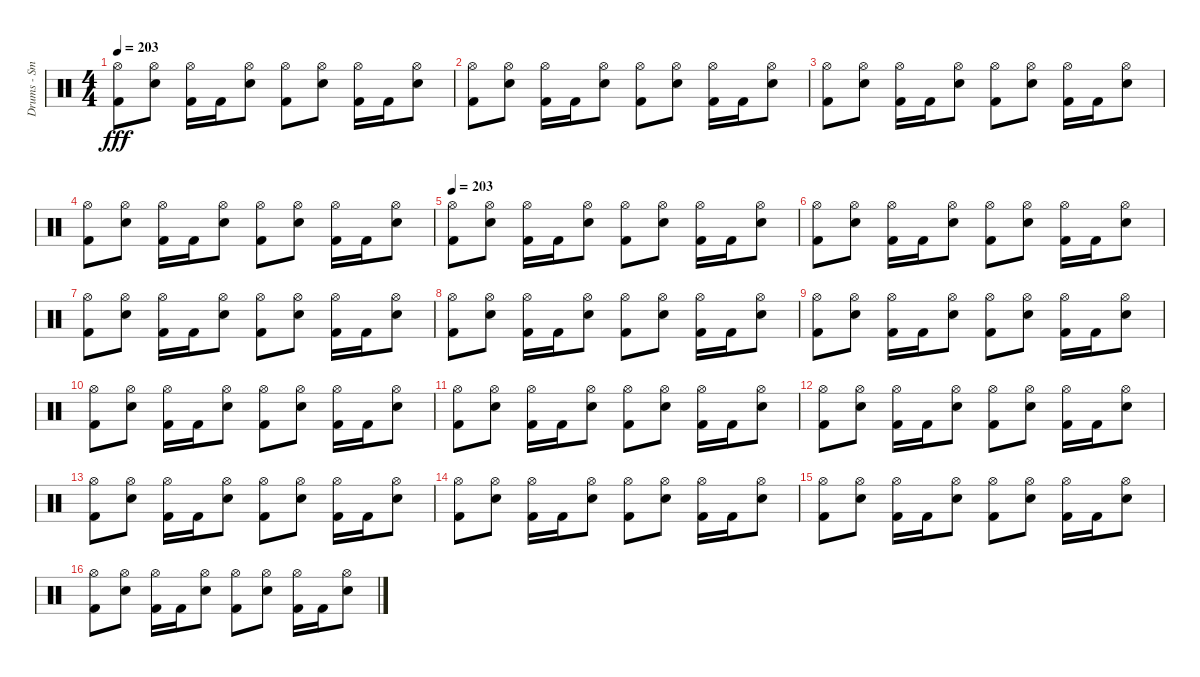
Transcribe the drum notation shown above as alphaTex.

\track ("Drums - Smelly" "Drums - Sm") {instrument percussion}
\staff {score}
\articulation defaults
\ts (4 4)
\tempo 203
\clef neutral
\ks c
("Kick (hit) 2" "Hi-Hat (open)").8{dy fff} ("Electric Snare (hit)" "Hi-Hat (open)").8 ("Kick (hit) 2" "Hi-Hat (open)").16 "Kick (hit) 2".16 ("Electric Snare (hit)" "Hi-Hat (open)").8 ("Kick (hit) 2" "Hi-Hat (open)").8 ("Electric Snare (hit)" "Hi-Hat (open)").8 ("Kick (hit) 2" "Hi-Hat (open)").16 "Kick (hit) 2".16 ("Electric Snare (hit)" "Hi-Hat (open)").8 |
("Kick (hit) 2" "Hi-Hat (open)").8 ("Electric Snare (hit)" "Hi-Hat (open)").8 ("Kick (hit) 2" "Hi-Hat (open)").16 "Kick (hit) 2".16 ("Electric Snare (hit)" "Hi-Hat (open)").8 ("Kick (hit) 2" "Hi-Hat (open)").8 ("Electric Snare (hit)" "Hi-Hat (open)").8 ("Kick (hit) 2" "Hi-Hat (open)").16 "Kick (hit) 2".16 ("Electric Snare (hit)" "Hi-Hat (open)").8 |
("Kick (hit) 2" "Hi-Hat (open)").8 ("Electric Snare (hit)" "Hi-Hat (open)").8 ("Kick (hit) 2" "Hi-Hat (open)").16 "Kick (hit) 2".16 ("Electric Snare (hit)" "Hi-Hat (open)").8 ("Kick (hit) 2" "Hi-Hat (open)").8 ("Electric Snare (hit)" "Hi-Hat (open)").8 ("Kick (hit) 2" "Hi-Hat (open)").16 "Kick (hit) 2".16 ("Electric Snare (hit)" "Hi-Hat (open)").8 |
("Kick (hit) 2" "Hi-Hat (open)").8 ("Electric Snare (hit)" "Hi-Hat (open)").8 ("Kick (hit) 2" "Hi-Hat (open)").16 "Kick (hit) 2".16 ("Electric Snare (hit)" "Hi-Hat (open)").8 ("Kick (hit) 2" "Hi-Hat (open)").8 ("Electric Snare (hit)" "Hi-Hat (open)").8 ("Kick (hit) 2" "Hi-Hat (open)").16 "Kick (hit) 2".16 ("Electric Snare (hit)" "Hi-Hat (open)").8 |
\tempo 203
("Kick (hit) 2" "Hi-Hat (open)").8 ("Electric Snare (hit)" "Hi-Hat (open)").8 ("Kick (hit) 2" "Hi-Hat (open)").16 "Kick (hit) 2".16 ("Electric Snare (hit)" "Hi-Hat (open)").8 ("Kick (hit) 2" "Hi-Hat (open)").8 ("Electric Snare (hit)" "Hi-Hat (open)").8 ("Kick (hit) 2" "Hi-Hat (open)").16 "Kick (hit) 2".16 ("Electric Snare (hit)" "Hi-Hat (open)").8 |
("Kick (hit) 2" "Hi-Hat (open)").8 ("Electric Snare (hit)" "Hi-Hat (open)").8 ("Kick (hit) 2" "Hi-Hat (open)").16 "Kick (hit) 2".16 ("Electric Snare (hit)" "Hi-Hat (open)").8 ("Kick (hit) 2" "Hi-Hat (open)").8 ("Electric Snare (hit)" "Hi-Hat (open)").8 ("Kick (hit) 2" "Hi-Hat (open)").16 "Kick (hit) 2".16 ("Electric Snare (hit)" "Hi-Hat (open)").8 |
("Kick (hit) 2" "Hi-Hat (open)").8 ("Electric Snare (hit)" "Hi-Hat (open)").8 ("Kick (hit) 2" "Hi-Hat (open)").16 "Kick (hit) 2".16 ("Electric Snare (hit)" "Hi-Hat (open)").8 ("Kick (hit) 2" "Hi-Hat (open)").8 ("Electric Snare (hit)" "Hi-Hat (open)").8 ("Kick (hit) 2" "Hi-Hat (open)").16 "Kick (hit) 2".16 ("Electric Snare (hit)" "Hi-Hat (open)").8 |
("Kick (hit) 2" "Hi-Hat (open)").8 ("Electric Snare (hit)" "Hi-Hat (open)").8 ("Kick (hit) 2" "Hi-Hat (open)").16 "Kick (hit) 2".16 ("Electric Snare (hit)" "Hi-Hat (open)").8 ("Kick (hit) 2" "Hi-Hat (open)").8 ("Electric Snare (hit)" "Hi-Hat (open)").8 ("Kick (hit) 2" "Hi-Hat (open)").16 "Kick (hit) 2".16 ("Electric Snare (hit)" "Hi-Hat (open)").8 |
("Kick (hit) 2" "Hi-Hat (open)").8 ("Electric Snare (hit)" "Hi-Hat (open)").8 ("Kick (hit) 2" "Hi-Hat (open)").16 "Kick (hit) 2".16 ("Electric Snare (hit)" "Hi-Hat (open)").8 ("Kick (hit) 2" "Hi-Hat (open)").8 ("Electric Snare (hit)" "Hi-Hat (open)").8 ("Kick (hit) 2" "Hi-Hat (open)").16 "Kick (hit) 2".16 ("Electric Snare (hit)" "Hi-Hat (open)").8 |
("Kick (hit) 2" "Hi-Hat (open)").8 ("Electric Snare (hit)" "Hi-Hat (open)").8 ("Kick (hit) 2" "Hi-Hat (open)").16 "Kick (hit) 2".16 ("Electric Snare (hit)" "Hi-Hat (open)").8 ("Kick (hit) 2" "Hi-Hat (open)").8 ("Electric Snare (hit)" "Hi-Hat (open)").8 ("Kick (hit) 2" "Hi-Hat (open)").16 "Kick (hit) 2".16 ("Electric Snare (hit)" "Hi-Hat (open)").8 |
("Kick (hit) 2" "Hi-Hat (open)").8 ("Electric Snare (hit)" "Hi-Hat (open)").8 ("Kick (hit) 2" "Hi-Hat (open)").16 "Kick (hit) 2".16 ("Electric Snare (hit)" "Hi-Hat (open)").8 ("Kick (hit) 2" "Hi-Hat (open)").8 ("Electric Snare (hit)" "Hi-Hat (open)").8 ("Kick (hit) 2" "Hi-Hat (open)").16 "Kick (hit) 2".16 ("Electric Snare (hit)" "Hi-Hat (open)").8 |
("Kick (hit) 2" "Hi-Hat (open)").8 ("Electric Snare (hit)" "Hi-Hat (open)").8 ("Kick (hit) 2" "Hi-Hat (open)").16 "Kick (hit) 2".16 ("Electric Snare (hit)" "Hi-Hat (open)").8 ("Kick (hit) 2" "Hi-Hat (open)").8 ("Electric Snare (hit)" "Hi-Hat (open)").8 ("Kick (hit) 2" "Hi-Hat (open)").16 "Kick (hit) 2".16 ("Electric Snare (hit)" "Hi-Hat (open)").8 |
("Kick (hit) 2" "Hi-Hat (open)").8 ("Electric Snare (hit)" "Hi-Hat (open)").8 ("Kick (hit) 2" "Hi-Hat (open)").16 "Kick (hit) 2".16 ("Electric Snare (hit)" "Hi-Hat (open)").8 ("Kick (hit) 2" "Hi-Hat (open)").8 ("Electric Snare (hit)" "Hi-Hat (open)").8 ("Kick (hit) 2" "Hi-Hat (open)").16 "Kick (hit) 2".16 ("Electric Snare (hit)" "Hi-Hat (open)").8 |
("Kick (hit) 2" "Hi-Hat (open)").8 ("Electric Snare (hit)" "Hi-Hat (open)").8 ("Kick (hit) 2" "Hi-Hat (open)").16 "Kick (hit) 2".16 ("Electric Snare (hit)" "Hi-Hat (open)").8 ("Kick (hit) 2" "Hi-Hat (open)").8 ("Electric Snare (hit)" "Hi-Hat (open)").8 ("Kick (hit) 2" "Hi-Hat (open)").16 "Kick (hit) 2".16 ("Electric Snare (hit)" "Hi-Hat (open)").8 |
("Kick (hit) 2" "Hi-Hat (open)").8 ("Electric Snare (hit)" "Hi-Hat (open)").8 ("Kick (hit) 2" "Hi-Hat (open)").16 "Kick (hit) 2".16 ("Electric Snare (hit)" "Hi-Hat (open)").8 ("Kick (hit) 2" "Hi-Hat (open)").8 ("Electric Snare (hit)" "Hi-Hat (open)").8 ("Kick (hit) 2" "Hi-Hat (open)").16 "Kick (hit) 2".16 ("Electric Snare (hit)" "Hi-Hat (open)").8 |
("Kick (hit) 2" "Hi-Hat (open)").8 ("Electric Snare (hit)" "Hi-Hat (open)").8 ("Kick (hit) 2" "Hi-Hat (open)").16 "Kick (hit) 2".16 ("Electric Snare (hit)" "Hi-Hat (open)").8 ("Kick (hit) 2" "Hi-Hat (open)").8 ("Electric Snare (hit)" "Hi-Hat (open)").8 ("Kick (hit) 2" "Hi-Hat (open)").16 "Kick (hit) 2".16 ("Electric Snare (hit)" "Hi-Hat (open)").8
